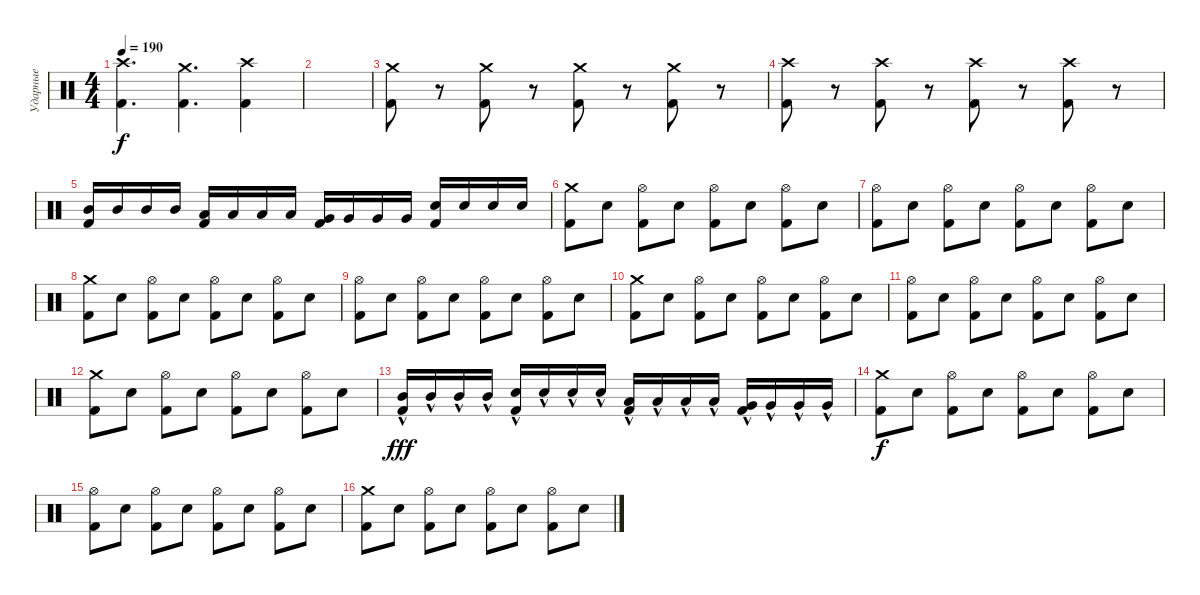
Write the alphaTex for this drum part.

\track ("Ударные" "Ударные") {instrument percussion}
\staff {score}
\articulation defaults
\ts (4 4)
\tempo 190
\clef neutral
\ks c
("Crash high (hit)" "Kick (hit) 2").4{d dy f} ("Crash medium (hit)" "Kick (hit) 2").4{d} ("Crash high (hit)" "Kick (hit) 2").4 |
|
("Crash medium (hit)" "Kick (hit) 2").8 r.8 ("Crash medium (hit)" "Kick (hit) 2").8 r.8 ("Crash medium (hit)" "Kick (hit) 2").8 r.8 ("Crash medium (hit)" "Kick (hit) 2").8 r.8 |
("Crash high (hit)" "Kick (hit) 2").8 r.8 ("Crash high (hit)" "Kick (hit) 2").8 r.8 ("Crash high (hit)" "Kick (hit) 2").8 r.8 ("Crash high (hit)" "Kick (hit) 2").8 r.8 |
("Mid Tom (hit)" "Kick (hit) 2").16 "Mid Tom (hit)".16 "Mid Tom (hit)".16 "Mid Tom (hit)".16 ("Low Tom (hit)" "Kick (hit) 2").16 "Low Tom (hit)".16 "Low Tom (hit)".16 "Low Tom (hit)".16 ("Very Low Tom (hit)" "Kick (hit) 2").16 "Very Low Tom (hit)".16 "Very Low Tom (hit)".16 "Very Low Tom (hit)".16 ("Electric Snare (hit)" "Kick (hit) 2").16 "Electric Snare (hit)".16 "Electric Snare (hit)".16 "Electric Snare (hit)".16 |
("Crash medium (hit)" "Kick (hit) 2").8 "Electric Snare (hit)".8 ("Hi-Hat (open)" "Kick (hit) 2").8 "Electric Snare (hit)".8 ("Hi-Hat (open)" "Kick (hit) 2").8 "Electric Snare (hit)".8 ("Hi-Hat (open)" "Kick (hit) 2").8 "Electric Snare (hit)".8 |
("Hi-Hat (open)" "Kick (hit) 2").8 "Electric Snare (hit)".8 ("Hi-Hat (open)" "Kick (hit) 2").8 "Electric Snare (hit)".8 ("Hi-Hat (open)" "Kick (hit) 2").8 "Electric Snare (hit)".8 ("Hi-Hat (open)" "Kick (hit) 2").8 "Electric Snare (hit)".8 |
("Crash medium (hit)" "Kick (hit) 2").8 "Electric Snare (hit)".8 ("Hi-Hat (open)" "Kick (hit) 2").8 "Electric Snare (hit)".8 ("Hi-Hat (open)" "Kick (hit) 2").8 "Electric Snare (hit)".8 ("Hi-Hat (open)" "Kick (hit) 2").8 "Electric Snare (hit)".8 |
("Hi-Hat (open)" "Kick (hit) 2").8 "Electric Snare (hit)".8 ("Hi-Hat (open)" "Kick (hit) 2").8 "Electric Snare (hit)".8 ("Hi-Hat (open)" "Kick (hit) 2").8 "Electric Snare (hit)".8 ("Hi-Hat (open)" "Kick (hit) 2").8 "Electric Snare (hit)".8 |
("Crash medium (hit)" "Kick (hit) 2").8 "Electric Snare (hit)".8 ("Hi-Hat (open)" "Kick (hit) 2").8 "Electric Snare (hit)".8 ("Hi-Hat (open)" "Kick (hit) 2").8 "Electric Snare (hit)".8 ("Hi-Hat (open)" "Kick (hit) 2").8 "Electric Snare (hit)".8 |
("Hi-Hat (open)" "Kick (hit) 2").8 "Electric Snare (hit)".8 ("Hi-Hat (open)" "Kick (hit) 2").8 "Electric Snare (hit)".8 ("Hi-Hat (open)" "Kick (hit) 2").8 "Electric Snare (hit)".8 ("Hi-Hat (open)" "Kick (hit) 2").8 "Electric Snare (hit)".8 |
("Crash medium (hit)" "Kick (hit) 2").8 "Electric Snare (hit)".8 ("Hi-Hat (open)" "Kick (hit) 2").8 "Electric Snare (hit)".8 ("Hi-Hat (open)" "Kick (hit) 2").8 "Electric Snare (hit)".8 ("Hi-Hat (open)" "Kick (hit) 2").8 "Electric Snare (hit)".8 |
("Mid Tom (hit)"{hac} "Kick (hit) 2"{hac}).16{dy fff} "Mid Tom (hit)"{hac}.16 "Mid Tom (hit)"{hac}.16 "Mid Tom (hit)"{hac}.16 ("Electric Snare (hit)"{hac} "Kick (hit) 2"{hac}).16 "Electric Snare (hit)"{hac}.16 "Electric Snare (hit)"{hac}.16 "Electric Snare (hit)"{hac}.16 ("Low Tom (hit)"{hac} "Kick (hit) 2"{hac}).16 "Low Tom (hit)"{hac}.16 "Low Tom (hit)"{hac}.16 "Low Tom (hit)"{hac}.16 ("Very Low Tom (hit)"{hac} "Kick (hit) 2"{hac}).16 "Very Low Tom (hit)"{hac}.16 "Very Low Tom (hit)"{hac}.16 "Very Low Tom (hit)"{hac}.16 |
("Crash medium (hit)" "Kick (hit) 2").8{dy f} "Electric Snare (hit)".8 ("Hi-Hat (open)" "Kick (hit) 2").8 "Electric Snare (hit)".8 ("Hi-Hat (open)" "Kick (hit) 2").8 "Electric Snare (hit)".8 ("Hi-Hat (open)" "Kick (hit) 2").8 "Electric Snare (hit)".8 |
("Hi-Hat (open)" "Kick (hit) 2").8 "Electric Snare (hit)".8 ("Hi-Hat (open)" "Kick (hit) 2").8 "Electric Snare (hit)".8 ("Hi-Hat (open)" "Kick (hit) 2").8 "Electric Snare (hit)".8 ("Hi-Hat (open)" "Kick (hit) 2").8 "Electric Snare (hit)".8 |
("Crash medium (hit)" "Kick (hit) 2").8 "Electric Snare (hit)".8 ("Hi-Hat (open)" "Kick (hit) 2").8 "Electric Snare (hit)".8 ("Hi-Hat (open)" "Kick (hit) 2").8 "Electric Snare (hit)".8 ("Hi-Hat (open)" "Kick (hit) 2").8 "Electric Snare (hit)".8
